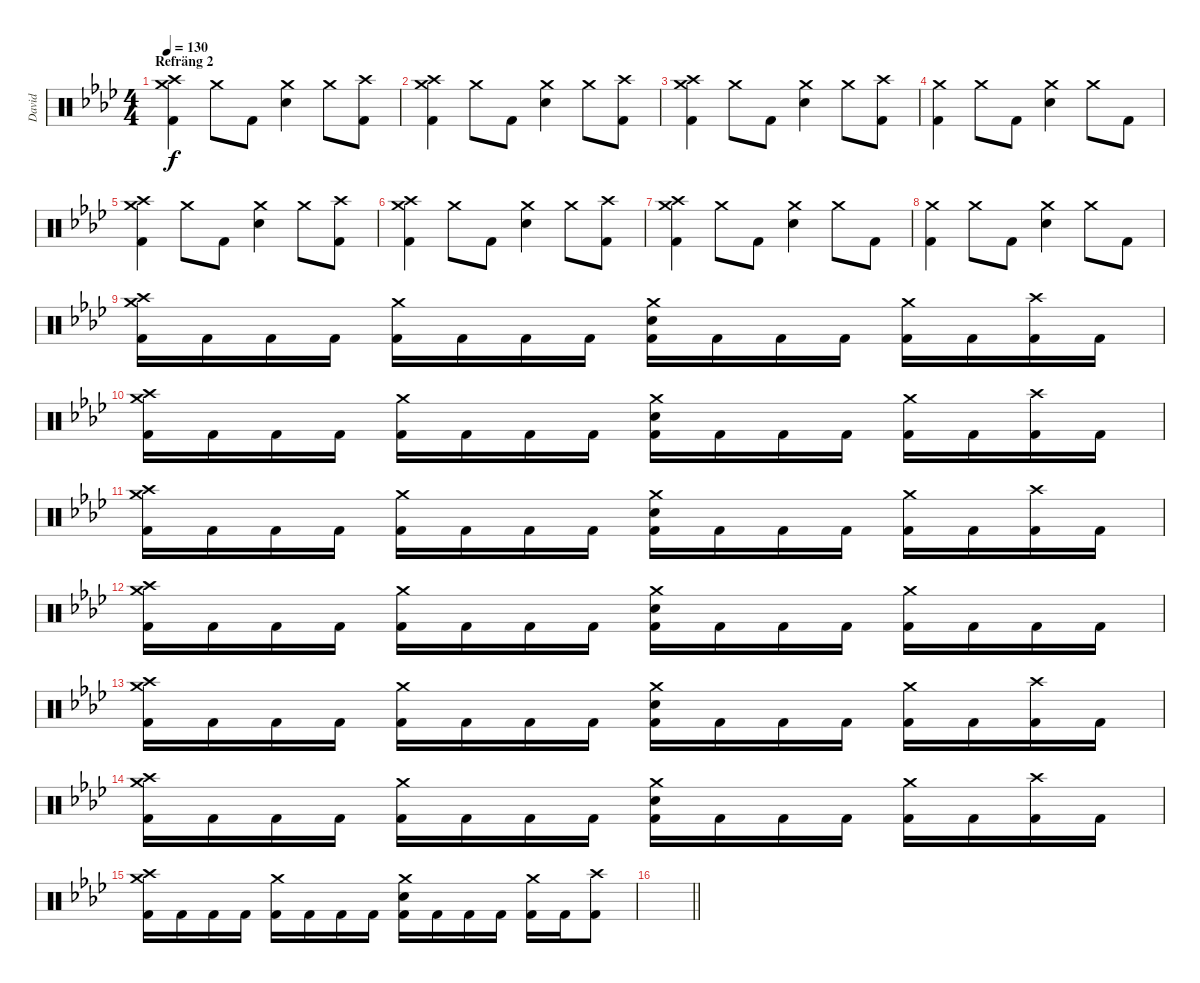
\track ("David" "David") {instrument percussion}
\staff {score}
\articulation defaults
\ts (4 4)
\section ("" "Refräng 2")
\tempo 130
\clef neutral
\ks ab
("Crash medium (hit)" "Crash high (hit)" "Kick (hit) 2").4{dy f} "Crash medium (hit)".8 "Kick (hit) 2".8 ("Crash medium (hit)" "Electric Snare (hit)").4 "Crash medium (hit)".8 ("Crash high (hit)" "Kick (hit) 2").8 |
("Crash medium (hit)" "Crash high (hit)" "Kick (hit) 2").4 "Crash medium (hit)".8 "Kick (hit) 2".8 ("Crash medium (hit)" "Electric Snare (hit)").4 "Crash medium (hit)".8 ("Crash high (hit)" "Kick (hit) 2").8 |
("Crash medium (hit)" "Crash high (hit)" "Kick (hit) 2").4 "Crash medium (hit)".8 "Kick (hit) 2".8 ("Crash medium (hit)" "Electric Snare (hit)").4 "Crash medium (hit)".8 ("Crash high (hit)" "Kick (hit) 2").8 |
("Crash medium (hit)" "Kick (hit) 2").4 "Crash medium (hit)".8 "Kick (hit) 2".8 ("Crash medium (hit)" "Electric Snare (hit)").4 "Crash medium (hit)".8 "Kick (hit) 2".8 |
("Crash medium (hit)" "Crash high (hit)" "Kick (hit) 2").4 "Crash medium (hit)".8 "Kick (hit) 2".8 ("Crash medium (hit)" "Electric Snare (hit)").4 "Crash medium (hit)".8 ("Crash high (hit)" "Kick (hit) 2").8 |
("Crash medium (hit)" "Crash high (hit)" "Kick (hit) 2").4 "Crash medium (hit)".8 "Kick (hit) 2".8 ("Crash medium (hit)" "Electric Snare (hit)").4 "Crash medium (hit)".8 ("Crash high (hit)" "Kick (hit) 2").8 |
("Crash medium (hit)" "Crash high (hit)" "Kick (hit) 2").4 "Crash medium (hit)".8 "Kick (hit) 2".8 ("Crash medium (hit)" "Electric Snare (hit)").4 "Crash medium (hit)".8 "Kick (hit) 2".8 |
("Crash medium (hit)" "Kick (hit) 2").4 "Crash medium (hit)".8 "Kick (hit) 2".8 ("Crash medium (hit)" "Electric Snare (hit)").4 "Crash medium (hit)".8 "Kick (hit) 2".8 |
("Crash medium (hit)" "Crash high (hit)" "Kick (hit) 2").16 "Kick (hit) 2".16 "Kick (hit) 2".16 "Kick (hit) 2".16 ("Crash medium (hit)" "Kick (hit) 2").16 "Kick (hit) 2".16 "Kick (hit) 2".16 "Kick (hit) 2".16 ("Crash medium (hit)" "Electric Snare (hit)" "Kick (hit) 2").16 "Kick (hit) 2".16 "Kick (hit) 2".16 "Kick (hit) 2".16 ("Crash medium (hit)" "Kick (hit) 2").16 "Kick (hit) 2".16 ("Crash high (hit)" "Kick (hit) 2").16 "Kick (hit) 2".16 |
("Crash medium (hit)" "Crash high (hit)" "Kick (hit) 2").16 "Kick (hit) 2".16 "Kick (hit) 2".16 "Kick (hit) 2".16 ("Crash medium (hit)" "Kick (hit) 2").16 "Kick (hit) 2".16 "Kick (hit) 2".16 "Kick (hit) 2".16 ("Crash medium (hit)" "Electric Snare (hit)" "Kick (hit) 2").16 "Kick (hit) 2".16 "Kick (hit) 2".16 "Kick (hit) 2".16 ("Crash medium (hit)" "Kick (hit) 2").16 "Kick (hit) 2".16 ("Crash high (hit)" "Kick (hit) 2").16 "Kick (hit) 2".16 |
("Crash medium (hit)" "Crash high (hit)" "Kick (hit) 2").16 "Kick (hit) 2".16 "Kick (hit) 2".16 "Kick (hit) 2".16 ("Crash medium (hit)" "Kick (hit) 2").16 "Kick (hit) 2".16 "Kick (hit) 2".16 "Kick (hit) 2".16 ("Crash medium (hit)" "Electric Snare (hit)" "Kick (hit) 2").16 "Kick (hit) 2".16 "Kick (hit) 2".16 "Kick (hit) 2".16 ("Crash medium (hit)" "Kick (hit) 2").16 "Kick (hit) 2".16 ("Crash high (hit)" "Kick (hit) 2").16 "Kick (hit) 2".16 |
("Crash medium (hit)" "Crash high (hit)" "Kick (hit) 2").16 "Kick (hit) 2".16 "Kick (hit) 2".16 "Kick (hit) 2".16 ("Crash medium (hit)" "Kick (hit) 2").16 "Kick (hit) 2".16 "Kick (hit) 2".16 "Kick (hit) 2".16 ("Crash medium (hit)" "Electric Snare (hit)" "Kick (hit) 2").16 "Kick (hit) 2".16 "Kick (hit) 2".16 "Kick (hit) 2".16 ("Crash medium (hit)" "Kick (hit) 2").16 "Kick (hit) 2".16 "Kick (hit) 2".16 "Kick (hit) 2".16 |
("Crash medium (hit)" "Crash high (hit)" "Kick (hit) 2").16 "Kick (hit) 2".16 "Kick (hit) 2".16 "Kick (hit) 2".16 ("Crash medium (hit)" "Kick (hit) 2").16 "Kick (hit) 2".16 "Kick (hit) 2".16 "Kick (hit) 2".16 ("Crash medium (hit)" "Electric Snare (hit)" "Kick (hit) 2").16 "Kick (hit) 2".16 "Kick (hit) 2".16 "Kick (hit) 2".16 ("Crash medium (hit)" "Kick (hit) 2").16 "Kick (hit) 2".16 ("Crash high (hit)" "Kick (hit) 2").16 "Kick (hit) 2".16 |
("Crash medium (hit)" "Crash high (hit)" "Kick (hit) 2").16 "Kick (hit) 2".16 "Kick (hit) 2".16 "Kick (hit) 2".16 ("Crash medium (hit)" "Kick (hit) 2").16 "Kick (hit) 2".16 "Kick (hit) 2".16 "Kick (hit) 2".16 ("Crash medium (hit)" "Electric Snare (hit)" "Kick (hit) 2").16 "Kick (hit) 2".16 "Kick (hit) 2".16 "Kick (hit) 2".16 ("Crash medium (hit)" "Kick (hit) 2").16 "Kick (hit) 2".16 ("Crash high (hit)" "Kick (hit) 2").16 "Kick (hit) 2".16 |
("Crash medium (hit)" "Crash high (hit)" "Kick (hit) 2").16 "Kick (hit) 2".16 "Kick (hit) 2".16 "Kick (hit) 2".16 ("Crash medium (hit)" "Kick (hit) 2").16 "Kick (hit) 2".16 "Kick (hit) 2".16 "Kick (hit) 2".16 ("Crash medium (hit)" "Electric Snare (hit)" "Kick (hit) 2").16 "Kick (hit) 2".16 "Kick (hit) 2".16 "Kick (hit) 2".16 ("Crash medium (hit)" "Kick (hit) 2").16 "Kick (hit) 2".16 ("Crash high (hit)" "Kick (hit) 2").8 |
\barLineRight lightlight
